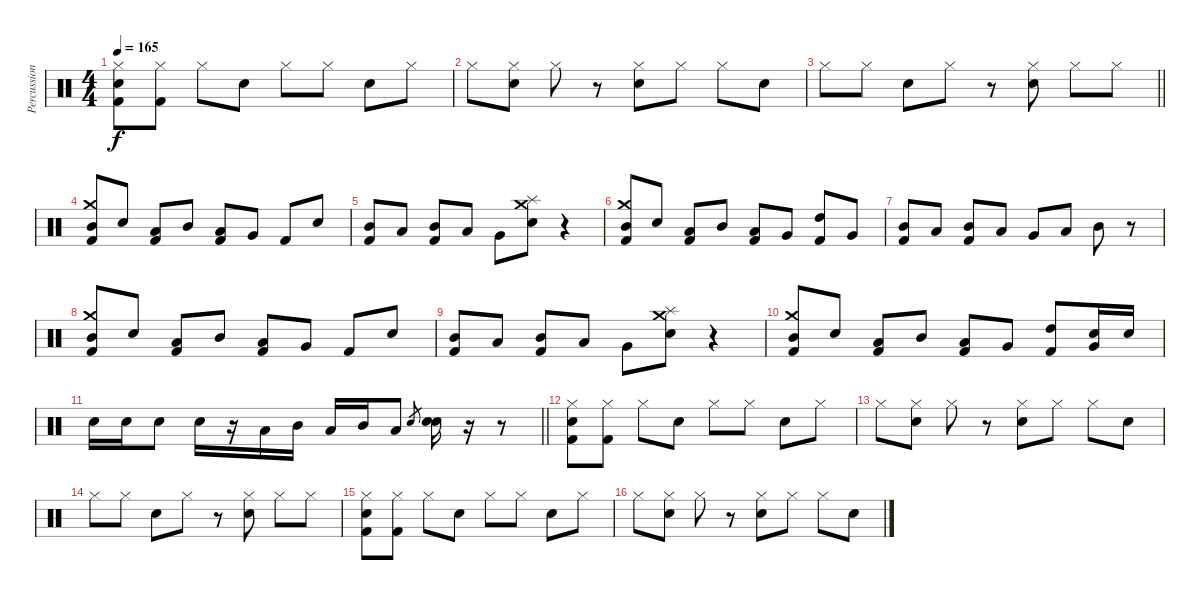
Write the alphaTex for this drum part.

\track ("Percussion" "Percussion") {instrument percussion}
\staff {score}
\articulation defaults
\ts (4 4)
\tempo 165
\clef neutral
\ks c
("Hi-Hat (closed)" "Snare (hit) 2" "Kick (hit) 2").8{dy f} ("Hi-Hat (closed)" "Kick (hit) 2").8 "Hi-Hat (closed)".8 "Snare (hit) 2".8 "Hi-Hat (closed)".8 "Hi-Hat (closed)".8 "Snare (hit) 2".8 "Hi-Hat (closed)".8 |
"Hi-Hat (closed)".8 ("Hi-Hat (closed)" "Snare (hit) 2").8 "Hi-Hat (closed)".8 r.8 ("Hi-Hat (closed)" "Snare (hit) 2").8 "Hi-Hat (closed)".8 "Hi-Hat (closed)".8 "Snare (hit) 2".8 |
\barLineRight lightlight "Hi-Hat (closed)".8 "Hi-Hat (closed)".8 "Snare (hit) 2".8 "Hi-Hat (closed)".8
r.8 ("Hi-Hat (closed)" "Snare (hit) 2").8 "Hi-Hat (closed)".8 "Hi-Hat (closed)".8 |
("Crash medium (hit)" "Mid Tom (hit)" "Kick (hit) 2").8 "Snare (hit) 2".8 ("Low Tom (hit)" "Kick (hit) 2").8 "Mid Tom (hit)".8 ("Low Tom (hit)" "Kick (hit) 2").8 "Very Low Tom (hit)".8 "Kick (hit) 2".8 "Snare (hit) 2".8 |
("Mid Tom (hit)" "Kick (hit) 2").8 "Low Tom (hit)".8 ("Mid Tom (hit)" "Kick (hit) 2").8 "Low Tom (hit)".8 "Very Low Tom (hit)".8 ("Splash (hit)" "Crash medium (hit)" "Snare (hit) 2").8 r.4 |
("Crash medium (hit)" "Mid Tom (hit)" "Kick (hit) 2").8 "Snare (hit) 2".8 ("Low Tom (hit)" "Kick (hit) 2").8 "Mid Tom (hit)".8 ("Low Tom (hit)" "Kick (hit) 2").8 "Very Low Tom (hit)".8 ("High Tom (hit)" "Kick (hit) 2").8 "Very Low Tom (hit)".8 |
("Mid Tom (hit)" "Kick (hit) 2").8 "Low Tom (hit)".8 ("Mid Tom (hit)" "Kick (hit) 2").8 "Low Tom (hit)".8 "Very Low Tom (hit)".8 "Low Tom (hit)".8 "Mid Tom (hit)".8 r.8 |
("Crash medium (hit)" "Mid Tom (hit)" "Kick (hit) 2").8 "Snare (hit) 2".8 ("Low Tom (hit)" "Kick (hit) 2").8 "Mid Tom (hit)".8 ("Low Tom (hit)" "Kick (hit) 2").8 "Very Low Tom (hit)".8 "Kick (hit) 2".8 "Snare (hit) 2".8 |
("Mid Tom (hit)" "Kick (hit) 2").8 "Low Tom (hit)".8 ("Mid Tom (hit)" "Kick (hit) 2").8 "Low Tom (hit)".8 "Very Low Tom (hit)".8 ("Splash (hit)" "Crash medium (hit)" "Snare (hit) 2").8 r.4 |
("Crash medium (hit)" "Mid Tom (hit)" "Kick (hit) 2").8 "Snare (hit) 2".8 ("Low Tom (hit)" "Kick (hit) 2").8 "Mid Tom (hit)".8 ("Low Tom (hit)" "Kick (hit) 2").8 "Very Low Tom (hit)".8 ("High Tom (hit)" "Kick (hit) 2").8 ("Very Low Tom (hit)" "Snare (hit) 2").16 "Snare (hit) 2".16 |
\barLineRight lightlight "Snare (hit) 2".16 "Snare (hit) 2".16 "Snare (hit) 2".8 "Snare (hit) 2".16
r.16 "Low Tom (hit)".16 "Mid Tom (hit)".16 "Low Tom (hit)".16 "Mid Tom (hit)".16 "Low Tom (hit)".8 "Snare (hit) 2".8{gr} ("Snare (hit) 2" "Snare (hit) 2").16 r.16 r.8 |
("Hi-Hat (closed)" "Snare (hit) 2" "Kick (hit) 2").8 ("Hi-Hat (closed)" "Kick (hit) 2").8 "Hi-Hat (closed)".8 "Snare (hit) 2".8 "Hi-Hat (closed)".8 "Hi-Hat (closed)".8 "Snare (hit) 2".8 "Hi-Hat (closed)".8 |
"Hi-Hat (closed)".8 ("Hi-Hat (closed)" "Snare (hit) 2").8 "Hi-Hat (closed)".8 r.8 ("Hi-Hat (closed)" "Snare (hit) 2").8 "Hi-Hat (closed)".8 "Hi-Hat (closed)".8 "Snare (hit) 2".8 |
"Hi-Hat (closed)".8 "Hi-Hat (closed)".8 "Snare (hit) 2".8 "Hi-Hat (closed)".8 r.8 ("Hi-Hat (closed)" "Snare (hit) 2").8 "Hi-Hat (closed)".8 "Hi-Hat (closed)".8 |
("Hi-Hat (closed)" "Snare (hit) 2" "Kick (hit) 2").8 ("Hi-Hat (closed)" "Kick (hit) 2").8 "Hi-Hat (closed)".8 "Snare (hit) 2".8 "Hi-Hat (closed)".8 "Hi-Hat (closed)".8 "Snare (hit) 2".8 "Hi-Hat (closed)".8 |
"Hi-Hat (closed)".8 ("Hi-Hat (closed)" "Snare (hit) 2").8 "Hi-Hat (closed)".8 r.8 ("Hi-Hat (closed)" "Snare (hit) 2").8 "Hi-Hat (closed)".8 "Hi-Hat (closed)".8 "Snare (hit) 2".8
